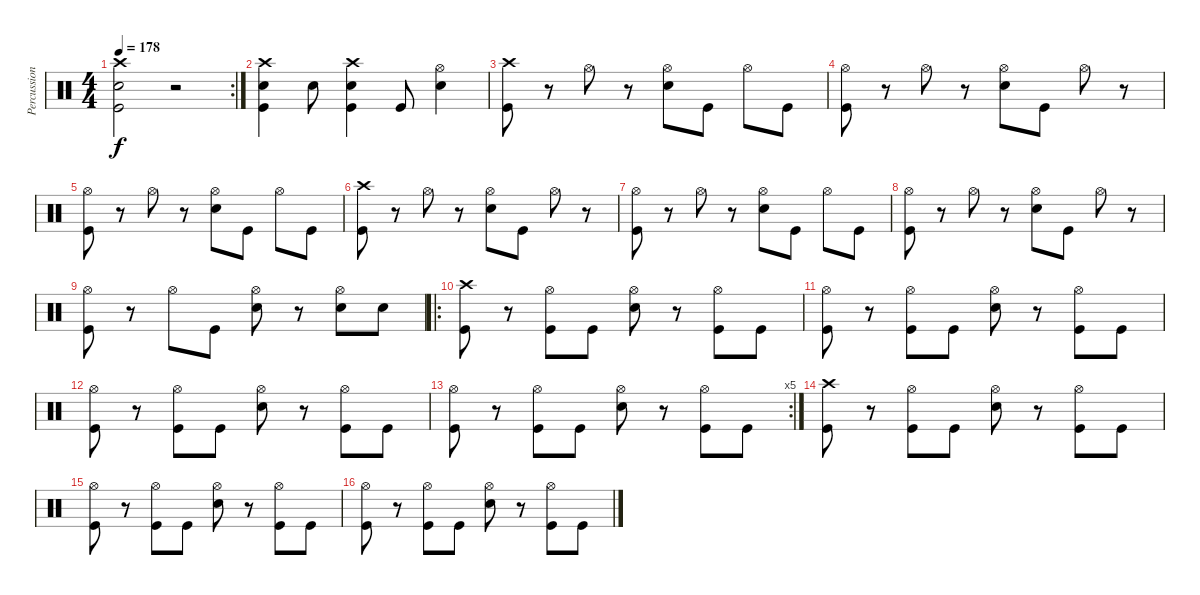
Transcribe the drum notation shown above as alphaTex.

\track ("Percussion" "Percussion") {instrument percussion}
\staff {score}
\articulation defaults
\rc 2
\ts (4 4)
\tempo 178
\clef neutral
\ks c
("Crash high (hit)" "Kick (hit)" "Snare (hit) 2").2{dy f} r.2 |
("Crash high (hit)" "Kick (hit)" "Snare (hit) 2").4 "Snare (hit) 2".8 ("Crash high (hit)" "Kick (hit)" "Snare (hit) 2").4 "Kick (hit)".8 ("Hi-Hat (open)" "Snare (hit) 2").4 |
("Crash high (hit)" "Kick (hit)").8 r.8 "Hi-Hat (open)".8 r.8 ("Hi-Hat (open)" "Snare (hit) 2").8 "Kick (hit)".8 "Hi-Hat (open)".8 "Kick (hit)".8 |
("Hi-Hat (open)" "Kick (hit)").8 r.8 "Hi-Hat (open)".8 r.8 ("Hi-Hat (open)" "Snare (hit) 2").8 "Kick (hit)".8 "Hi-Hat (open)".8 r.8 |
("Hi-Hat (open)" "Kick (hit)").8 r.8 "Hi-Hat (open)".8 r.8 ("Hi-Hat (open)" "Snare (hit) 2").8 "Kick (hit)".8 "Hi-Hat (open)".8 "Kick (hit)".8 |
("Crash high (hit)" "Kick (hit)").8 r.8 "Hi-Hat (open)".8 r.8 ("Hi-Hat (open)" "Snare (hit) 2").8 "Kick (hit)".8 "Hi-Hat (open)".8 r.8 |
("Hi-Hat (open)" "Kick (hit)").8 r.8 "Hi-Hat (open)".8 r.8 ("Hi-Hat (open)" "Snare (hit) 2").8 "Kick (hit)".8 "Hi-Hat (open)".8 "Kick (hit)".8 |
("Hi-Hat (open)" "Kick (hit)").8 r.8 "Hi-Hat (open)".8 r.8 ("Hi-Hat (open)" "Snare (hit) 2").8 "Kick (hit)".8 "Hi-Hat (open)".8 r.8 |
("Hi-Hat (open)" "Kick (hit)").8 r.8 "Hi-Hat (open)".8 "Kick (hit)".8 ("Hi-Hat (open)" "Snare (hit) 2").8 r.8 ("Hi-Hat (open)" "Snare (hit) 2").8 "Snare (hit) 2".8 |
\ro
("Crash high (hit)" "Kick (hit)").8 r.8 ("Hi-Hat (open)" "Kick (hit)").8 "Kick (hit)".8 ("Hi-Hat (open)" "Snare (hit) 2").8 r.8 ("Hi-Hat (open)" "Kick (hit)").8 "Kick (hit)".8 |
("Hi-Hat (open)" "Kick (hit)").8 r.8 ("Hi-Hat (open)" "Kick (hit)").8 "Kick (hit)".8 ("Hi-Hat (open)" "Snare (hit) 2").8 r.8 ("Hi-Hat (open)" "Kick (hit)").8 "Kick (hit)".8 |
("Hi-Hat (open)" "Kick (hit)").8 r.8 ("Hi-Hat (open)" "Kick (hit)").8 "Kick (hit)".8 ("Hi-Hat (open)" "Snare (hit) 2").8 r.8 ("Hi-Hat (open)" "Kick (hit)").8 "Kick (hit)".8 |
\rc 5
("Hi-Hat (open)" "Kick (hit)").8 r.8 ("Hi-Hat (open)" "Kick (hit)").8 "Kick (hit)".8 ("Hi-Hat (open)" "Snare (hit) 2").8 r.8 ("Hi-Hat (open)" "Kick (hit)").8 "Kick (hit)".8 |
("Crash high (hit)" "Kick (hit)").8{volume 0} r.8 ("Hi-Hat (open)" "Kick (hit)").8 "Kick (hit)".8 ("Hi-Hat (open)" "Snare (hit) 2").8 r.8 ("Hi-Hat (open)" "Kick (hit)").8 "Kick (hit)".8 |
("Hi-Hat (open)" "Kick (hit)").8 r.8 ("Hi-Hat (open)" "Kick (hit)").8 "Kick (hit)".8 ("Hi-Hat (open)" "Snare (hit) 2").8 r.8 ("Hi-Hat (open)" "Kick (hit)").8 "Kick (hit)".8 |
("Hi-Hat (open)" "Kick (hit)").8 r.8 ("Hi-Hat (open)" "Kick (hit)").8 "Kick (hit)".8 ("Hi-Hat (open)" "Snare (hit) 2").8 r.8 ("Hi-Hat (open)" "Kick (hit)").8 "Kick (hit)".8
